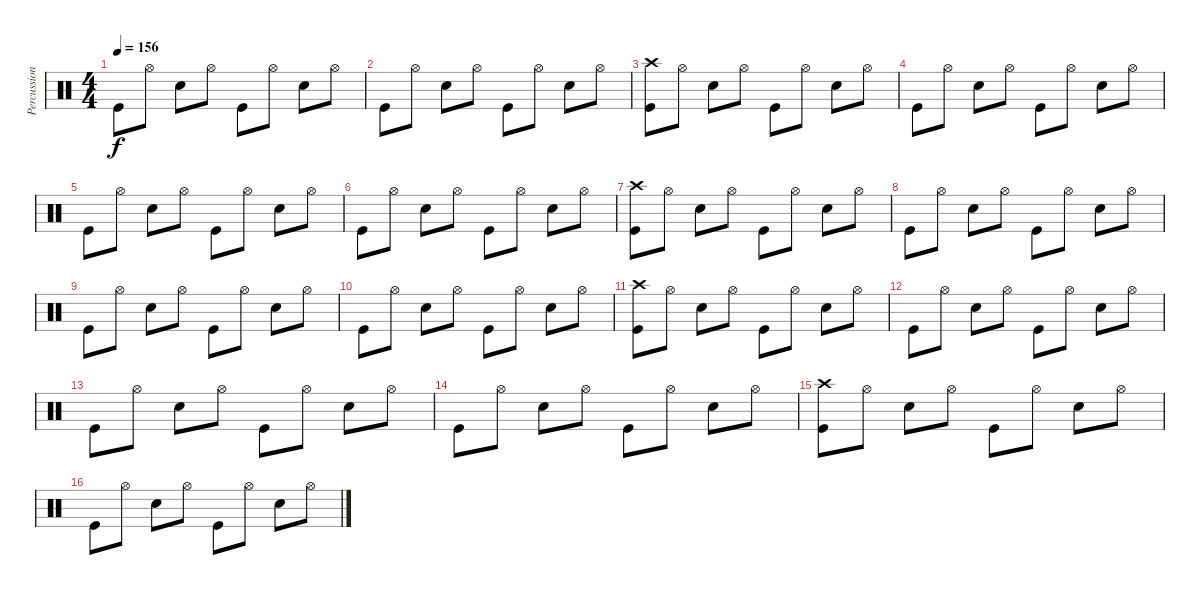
\track ("Percussion" "Percussion") {instrument percussion}
\staff {score}
\articulation defaults
\ts (4 4)
\tempo 156
\clef neutral
\ks c "Kick (hit)".8{dy f} "Hi-Hat (open)".8 "Electric Snare (hit)".8 "Hi-Hat (open)".8 "Kick (hit)".8 "Hi-Hat (open)".8 "Electric Snare (hit)".8 "Hi-Hat (open)".8
|
"Kick (hit)".8 "Hi-Hat (open)".8 "Electric Snare (hit)".8 "Hi-Hat (open)".8 "Kick (hit)".8 "Hi-Hat (open)".8 "Electric Snare (hit)".8 "Hi-Hat (open)".8 |
("Crash high (hit)" "Kick (hit)").8 "Hi-Hat (open)".8 "Electric Snare (hit)".8 "Hi-Hat (open)".8 "Kick (hit)".8 "Hi-Hat (open)".8 "Electric Snare (hit)".8 "Hi-Hat (open)".8 |
"Kick (hit)".8 "Hi-Hat (open)".8 "Electric Snare (hit)".8 "Hi-Hat (open)".8 "Kick (hit)".8 "Hi-Hat (open)".8 "Electric Snare (hit)".8 "Hi-Hat (open)".8 |
"Kick (hit)".8 "Hi-Hat (open)".8 "Electric Snare (hit)".8 "Hi-Hat (open)".8 "Kick (hit)".8 "Hi-Hat (open)".8 "Electric Snare (hit)".8 "Hi-Hat (open)".8 |
"Kick (hit)".8 "Hi-Hat (open)".8 "Electric Snare (hit)".8 "Hi-Hat (open)".8 "Kick (hit)".8 "Hi-Hat (open)".8 "Electric Snare (hit)".8 "Hi-Hat (open)".8 |
("Crash high (hit)" "Kick (hit)").8 "Hi-Hat (open)".8 "Electric Snare (hit)".8 "Hi-Hat (open)".8 "Kick (hit)".8 "Hi-Hat (open)".8 "Electric Snare (hit)".8 "Hi-Hat (open)".8 |
"Kick (hit)".8 "Hi-Hat (open)".8 "Electric Snare (hit)".8 "Hi-Hat (open)".8 "Kick (hit)".8 "Hi-Hat (open)".8 "Electric Snare (hit)".8 "Hi-Hat (open)".8 |
"Kick (hit)".8 "Hi-Hat (open)".8 "Electric Snare (hit)".8 "Hi-Hat (open)".8 "Kick (hit)".8 "Hi-Hat (open)".8 "Electric Snare (hit)".8 "Hi-Hat (open)".8 |
"Kick (hit)".8 "Hi-Hat (open)".8 "Electric Snare (hit)".8 "Hi-Hat (open)".8 "Kick (hit)".8 "Hi-Hat (open)".8 "Electric Snare (hit)".8 "Hi-Hat (open)".8 |
("Crash high (hit)" "Kick (hit)").8 "Hi-Hat (open)".8 "Electric Snare (hit)".8 "Hi-Hat (open)".8 "Kick (hit)".8 "Hi-Hat (open)".8 "Electric Snare (hit)".8 "Hi-Hat (open)".8 |
"Kick (hit)".8 "Hi-Hat (open)".8 "Electric Snare (hit)".8 "Hi-Hat (open)".8 "Kick (hit)".8 "Hi-Hat (open)".8 "Electric Snare (hit)".8 "Hi-Hat (open)".8 |
"Kick (hit)".8 "Hi-Hat (open)".8 "Electric Snare (hit)".8 "Hi-Hat (open)".8 "Kick (hit)".8 "Hi-Hat (open)".8 "Electric Snare (hit)".8 "Hi-Hat (open)".8 |
"Kick (hit)".8 "Hi-Hat (open)".8 "Electric Snare (hit)".8 "Hi-Hat (open)".8 "Kick (hit)".8 "Hi-Hat (open)".8 "Electric Snare (hit)".8 "Hi-Hat (open)".8 |
("Crash high (hit)" "Kick (hit)").8 "Hi-Hat (open)".8 "Electric Snare (hit)".8 "Hi-Hat (open)".8 "Kick (hit)".8 "Hi-Hat (open)".8 "Electric Snare (hit)".8 "Hi-Hat (open)".8 |
"Kick (hit)".8 "Hi-Hat (open)".8 "Electric Snare (hit)".8 "Hi-Hat (open)".8 "Kick (hit)".8 "Hi-Hat (open)".8 "Electric Snare (hit)".8 "Hi-Hat (open)".8
